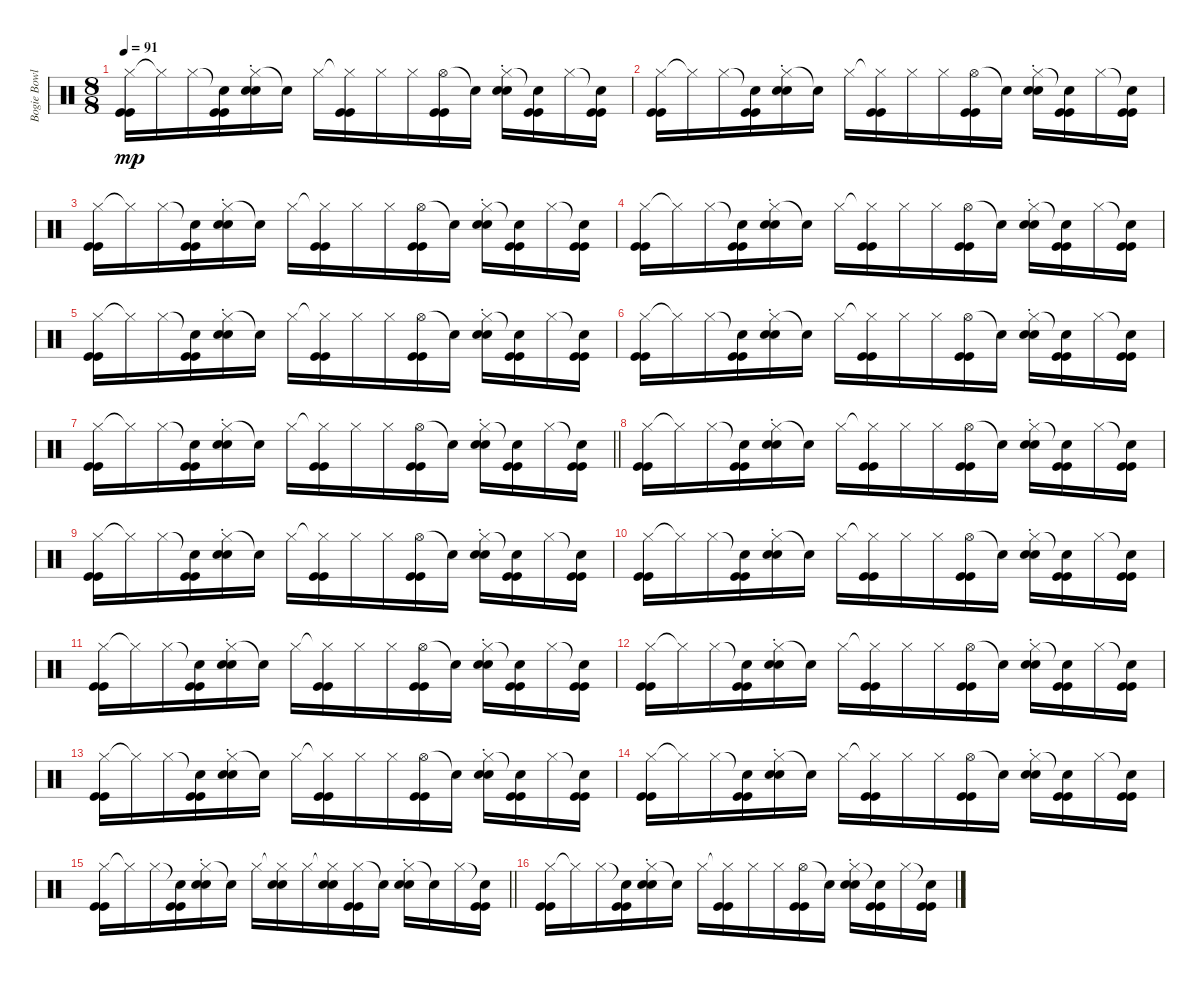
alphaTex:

\track ("Bogie Bowles Drums" "Bogie Bowl") {instrument percussion}
\staff {score}
\articulation defaults
\ts (8 8)
\tempo 91
\clef neutral
\ks c
("Hi-Hat (closed)" "Kick (hit)" "Kick (hit)").16{dy mp} "Hi-Hat (closed)"{t}.16 "Hi-Hat (closed)".16 ("Snare (hit)"{t} "Kick (hit)" "Kick (hit)").16 ("Hi-Hat (closed)" "Snare (hit) 2"{st} "Snare (hit) 2").16 "Snare (hit)"{t}.16 "Hi-Hat (closed)".16 ("Hi-Hat (closed)"{t} "Kick (hit)" "Kick (hit)").16 "Hi-Hat (closed)".16 "Hi-Hat (closed)".16 ("Hi-Hat (open)" "Kick (hit)" "Kick (hit)").16 "Snare (hit)"{t}.16 ("Hi-Hat (closed)" "Snare (hit) 2"{st} "Snare (hit) 2").16 ("Snare (hit)"{t} "Kick (hit)" "Kick (hit)").16 "Hi-Hat (closed)".16 ("Snare (hit)"{t} "Kick (hit)" "Kick (hit)").16 |
("Hi-Hat (closed)" "Kick (hit)" "Kick (hit)").16 "Hi-Hat (closed)"{t}.16 "Hi-Hat (closed)".16 ("Snare (hit)"{t} "Kick (hit)" "Kick (hit)").16 ("Hi-Hat (closed)" "Snare (hit) 2"{st} "Snare (hit) 2").16 "Snare (hit)"{t}.16 "Hi-Hat (closed)".16 ("Hi-Hat (closed)"{t} "Kick (hit)" "Kick (hit)").16 "Hi-Hat (closed)".16 "Hi-Hat (closed)".16 ("Hi-Hat (open)" "Kick (hit)" "Kick (hit)").16 "Snare (hit)"{t}.16 ("Hi-Hat (closed)" "Snare (hit) 2"{st} "Snare (hit) 2").16 ("Snare (hit)"{t} "Kick (hit)" "Kick (hit)").16 "Hi-Hat (closed)".16 ("Snare (hit)"{t} "Kick (hit)" "Kick (hit)").16 |
("Hi-Hat (closed)" "Kick (hit)" "Kick (hit)").16 "Hi-Hat (closed)"{t}.16 "Hi-Hat (closed)".16 ("Snare (hit)"{t} "Kick (hit)" "Kick (hit)").16 ("Hi-Hat (closed)" "Snare (hit) 2"{st} "Snare (hit) 2").16 "Snare (hit)"{t}.16 "Hi-Hat (closed)".16 ("Hi-Hat (closed)"{t} "Kick (hit)" "Kick (hit)").16 "Hi-Hat (closed)".16 "Hi-Hat (closed)".16 ("Hi-Hat (open)" "Kick (hit)" "Kick (hit)").16 "Snare (hit)"{t}.16 ("Hi-Hat (closed)" "Snare (hit) 2"{st} "Snare (hit) 2").16 ("Snare (hit)"{t} "Kick (hit)" "Kick (hit)").16 "Hi-Hat (closed)".16 ("Snare (hit)"{t} "Kick (hit)" "Kick (hit)").16 |
("Hi-Hat (closed)" "Kick (hit)" "Kick (hit)").16 "Hi-Hat (closed)"{t}.16 "Hi-Hat (closed)".16 ("Snare (hit)"{t} "Kick (hit)" "Kick (hit)").16 ("Hi-Hat (closed)" "Snare (hit) 2"{st} "Snare (hit) 2").16 "Snare (hit)"{t}.16 "Hi-Hat (closed)".16 ("Hi-Hat (closed)"{t} "Kick (hit)" "Kick (hit)").16 "Hi-Hat (closed)".16 "Hi-Hat (closed)".16 ("Hi-Hat (open)" "Kick (hit)" "Kick (hit)").16 "Snare (hit)"{t}.16 ("Hi-Hat (closed)" "Snare (hit) 2"{st} "Snare (hit) 2").16 ("Snare (hit)"{t} "Kick (hit)" "Kick (hit)").16 "Hi-Hat (closed)".16 ("Snare (hit)"{t} "Kick (hit)" "Kick (hit)").16 |
("Hi-Hat (closed)" "Kick (hit)" "Kick (hit)").16 "Hi-Hat (closed)"{t}.16 "Hi-Hat (closed)".16 ("Snare (hit)"{t} "Kick (hit)" "Kick (hit)").16 ("Hi-Hat (closed)" "Snare (hit) 2"{st} "Snare (hit) 2").16 "Snare (hit)"{t}.16 "Hi-Hat (closed)".16 ("Hi-Hat (closed)"{t} "Kick (hit)" "Kick (hit)").16 "Hi-Hat (closed)".16 "Hi-Hat (closed)".16 ("Hi-Hat (open)" "Kick (hit)" "Kick (hit)").16 "Snare (hit)"{t}.16 ("Hi-Hat (closed)" "Snare (hit) 2"{st} "Snare (hit) 2").16 ("Snare (hit)"{t} "Kick (hit)" "Kick (hit)").16 "Hi-Hat (closed)".16 ("Snare (hit)"{t} "Kick (hit)" "Kick (hit)").16 |
("Hi-Hat (closed)" "Kick (hit)" "Kick (hit)").16 "Hi-Hat (closed)"{t}.16 "Hi-Hat (closed)".16 ("Snare (hit)"{t} "Kick (hit)" "Kick (hit)").16 ("Hi-Hat (closed)" "Snare (hit) 2"{st} "Snare (hit) 2").16 "Snare (hit)"{t}.16 "Hi-Hat (closed)".16 ("Hi-Hat (closed)"{t} "Kick (hit)" "Kick (hit)").16 "Hi-Hat (closed)".16 "Hi-Hat (closed)".16 ("Hi-Hat (open)" "Kick (hit)" "Kick (hit)").16 "Snare (hit)"{t}.16 ("Hi-Hat (closed)" "Snare (hit) 2"{st} "Snare (hit) 2").16 ("Snare (hit)"{t} "Kick (hit)" "Kick (hit)").16 "Hi-Hat (closed)".16 ("Snare (hit)"{t} "Kick (hit)" "Kick (hit)").16 |
\barLineRight lightlight
("Hi-Hat (closed)" "Kick (hit)" "Kick (hit)").16 "Hi-Hat (closed)"{t}.16 "Hi-Hat (closed)".16 ("Snare (hit)"{t} "Kick (hit)" "Kick (hit)").16 ("Hi-Hat (closed)" "Snare (hit) 2"{st} "Snare (hit) 2").16 "Snare (hit)"{t}.16 "Hi-Hat (closed)".16 ("Hi-Hat (closed)"{t} "Kick (hit)" "Kick (hit)").16 "Hi-Hat (closed)".16 "Hi-Hat (closed)".16 ("Hi-Hat (open)" "Kick (hit)" "Kick (hit)").16 "Snare (hit)"{t}.16 ("Hi-Hat (closed)" "Snare (hit) 2"{st} "Snare (hit) 2").16 ("Snare (hit)"{t} "Kick (hit)" "Kick (hit)").16 "Hi-Hat (closed)".16 ("Snare (hit)"{t} "Kick (hit)" "Kick (hit)").16 |
("Hi-Hat (closed)" "Kick (hit)" "Kick (hit)").16 "Hi-Hat (closed)"{t}.16 "Hi-Hat (closed)".16 ("Snare (hit)"{t} "Kick (hit)" "Kick (hit)").16 ("Hi-Hat (closed)" "Snare (hit) 2"{st} "Snare (hit) 2").16 "Snare (hit)"{t}.16 "Hi-Hat (closed)".16 ("Hi-Hat (closed)"{t} "Kick (hit)" "Kick (hit)").16 "Hi-Hat (closed)".16 "Hi-Hat (closed)".16 ("Hi-Hat (open)" "Kick (hit)" "Kick (hit)").16 "Snare (hit)"{t}.16 ("Hi-Hat (closed)" "Snare (hit) 2"{st} "Snare (hit) 2").16 ("Snare (hit)"{t} "Kick (hit)" "Kick (hit)").16 "Hi-Hat (closed)".16 ("Snare (hit)"{t} "Kick (hit)" "Kick (hit)").16 |
("Hi-Hat (closed)" "Kick (hit)" "Kick (hit)").16 "Hi-Hat (closed)"{t}.16 "Hi-Hat (closed)".16 ("Snare (hit)"{t} "Kick (hit)" "Kick (hit)").16 ("Hi-Hat (closed)" "Snare (hit) 2"{st} "Snare (hit) 2").16 "Snare (hit)"{t}.16 "Hi-Hat (closed)".16 ("Hi-Hat (closed)"{t} "Kick (hit)" "Kick (hit)").16 "Hi-Hat (closed)".16 "Hi-Hat (closed)".16 ("Hi-Hat (open)" "Kick (hit)" "Kick (hit)").16 "Snare (hit)"{t}.16 ("Hi-Hat (closed)" "Snare (hit) 2"{st} "Snare (hit) 2").16 ("Snare (hit)"{t} "Kick (hit)" "Kick (hit)").16 "Hi-Hat (closed)".16 ("Snare (hit)"{t} "Kick (hit)" "Kick (hit)").16 |
("Hi-Hat (closed)" "Kick (hit)" "Kick (hit)").16 "Hi-Hat (closed)"{t}.16 "Hi-Hat (closed)".16 ("Snare (hit)"{t} "Kick (hit)" "Kick (hit)").16 ("Hi-Hat (closed)" "Snare (hit) 2"{st} "Snare (hit) 2").16 "Snare (hit)"{t}.16 "Hi-Hat (closed)".16 ("Hi-Hat (closed)"{t} "Kick (hit)" "Kick (hit)").16 "Hi-Hat (closed)".16 "Hi-Hat (closed)".16 ("Hi-Hat (open)" "Kick (hit)" "Kick (hit)").16 "Snare (hit)"{t}.16 ("Hi-Hat (closed)" "Snare (hit) 2"{st} "Snare (hit) 2").16 ("Snare (hit)"{t} "Kick (hit)" "Kick (hit)").16 "Hi-Hat (closed)".16 ("Snare (hit)"{t} "Kick (hit)" "Kick (hit)").16 |
("Hi-Hat (closed)" "Kick (hit)" "Kick (hit)").16 "Hi-Hat (closed)"{t}.16 "Hi-Hat (closed)".16 ("Snare (hit)"{t} "Kick (hit)" "Kick (hit)").16 ("Hi-Hat (closed)" "Snare (hit) 2"{st} "Snare (hit) 2").16 "Snare (hit)"{t}.16 "Hi-Hat (closed)".16 ("Hi-Hat (closed)"{t} "Kick (hit)" "Kick (hit)").16 "Hi-Hat (closed)".16 "Hi-Hat (closed)".16 ("Hi-Hat (open)" "Kick (hit)" "Kick (hit)").16 "Snare (hit)"{t}.16 ("Hi-Hat (closed)" "Snare (hit) 2"{st} "Snare (hit) 2").16 ("Snare (hit)"{t} "Kick (hit)" "Kick (hit)").16 "Hi-Hat (closed)".16 ("Snare (hit)"{t} "Kick (hit)" "Kick (hit)").16 |
("Hi-Hat (closed)" "Kick (hit)" "Kick (hit)").16 "Hi-Hat (closed)"{t}.16 "Hi-Hat (closed)".16 ("Snare (hit)"{t} "Kick (hit)" "Kick (hit)").16 ("Hi-Hat (closed)" "Snare (hit) 2"{st} "Snare (hit) 2").16 "Snare (hit)"{t}.16 "Hi-Hat (closed)".16 ("Hi-Hat (closed)"{t} "Kick (hit)" "Kick (hit)").16 "Hi-Hat (closed)".16 "Hi-Hat (closed)".16 ("Hi-Hat (open)" "Kick (hit)" "Kick (hit)").16 "Snare (hit)"{t}.16 ("Hi-Hat (closed)" "Snare (hit) 2"{st} "Snare (hit) 2").16 ("Snare (hit)"{t} "Kick (hit)" "Kick (hit)").16 "Hi-Hat (closed)".16 ("Snare (hit)"{t} "Kick (hit)" "Kick (hit)").16 |
("Hi-Hat (closed)" "Kick (hit)" "Kick (hit)").16 "Hi-Hat (closed)"{t}.16 "Hi-Hat (closed)".16 ("Snare (hit)"{t} "Kick (hit)" "Kick (hit)").16 ("Hi-Hat (closed)" "Snare (hit) 2"{st} "Snare (hit) 2").16 "Snare (hit)"{t}.16 "Hi-Hat (closed)".16 ("Hi-Hat (closed)"{t} "Kick (hit)" "Kick (hit)").16 "Hi-Hat (closed)".16 "Hi-Hat (closed)".16 ("Hi-Hat (open)" "Kick (hit)" "Kick (hit)").16 "Snare (hit)"{t}.16 ("Hi-Hat (closed)" "Snare (hit) 2"{st} "Snare (hit) 2").16 ("Snare (hit)"{t} "Kick (hit)" "Kick (hit)").16 "Hi-Hat (closed)".16 ("Snare (hit)"{t} "Kick (hit)" "Kick (hit)").16 |
("Hi-Hat (closed)" "Kick (hit)" "Kick (hit)").16 "Hi-Hat (closed)"{t}.16 "Hi-Hat (closed)".16 ("Snare (hit)"{t} "Kick (hit)" "Kick (hit)").16 ("Hi-Hat (closed)" "Snare (hit) 2"{st} "Snare (hit) 2").16 "Snare (hit)"{t}.16 "Hi-Hat (closed)".16 ("Hi-Hat (closed)"{t} "Kick (hit)" "Kick (hit)").16 "Hi-Hat (closed)".16 "Hi-Hat (closed)".16 ("Hi-Hat (open)" "Kick (hit)" "Kick (hit)").16 "Snare (hit)"{t}.16 ("Hi-Hat (closed)" "Snare (hit) 2"{st} "Snare (hit) 2").16 ("Snare (hit)"{t} "Kick (hit)" "Kick (hit)").16 "Hi-Hat (closed)".16 ("Snare (hit)"{t} "Kick (hit)" "Kick (hit)").16 |
\barLineRight lightlight
("Hi-Hat (closed)" "Kick (hit)" "Kick (hit)").16 "Hi-Hat (closed)"{t}.16 "Hi-Hat (closed)".16 ("Snare (hit)"{t} "Kick (hit)" "Kick (hit)").16 ("Hi-Hat (closed)" "Snare (hit) 2"{st} "Snare (hit) 2").16 "Snare (hit)"{t}.16 "Hi-Hat (closed)".16 ("Hi-Hat (closed)"{t} "Snare (hit) 2" "Snare (hit) 2").16 "Hi-Hat (closed)".16 ("Hi-Hat (closed)"{t} "Snare (hit) 2" "Snare (hit) 2").16 ("Hi-Hat (closed)" "Kick (hit)" "Kick (hit)").16 "Snare (hit)"{t}.16 ("Hi-Hat (closed)" "Snare (hit) 2"{st} "Snare (hit) 2").16 "Snare (hit)"{t}.16 "Hi-Hat (closed)".16 ("Snare (hit)"{t} "Kick (hit)" "Kick (hit)").16 |
("Hi-Hat (closed)" "Kick (hit)" "Kick (hit)").16 "Hi-Hat (closed)"{t}.16 "Hi-Hat (closed)".16 ("Snare (hit)"{t} "Kick (hit)" "Kick (hit)").16 ("Hi-Hat (closed)" "Snare (hit) 2"{st} "Snare (hit) 2").16 "Snare (hit)"{t}.16 "Hi-Hat (closed)".16 ("Hi-Hat (closed)"{t} "Kick (hit)" "Kick (hit)").16 "Hi-Hat (closed)".16 "Hi-Hat (closed)".16 ("Hi-Hat (open)" "Kick (hit)" "Kick (hit)").16 "Snare (hit)"{t}.16 ("Hi-Hat (closed)" "Snare (hit) 2"{st} "Snare (hit) 2").16 ("Snare (hit)"{t} "Kick (hit)" "Kick (hit)").16 "Hi-Hat (closed)".16 ("Snare (hit)"{t} "Kick (hit)" "Kick (hit)").16
